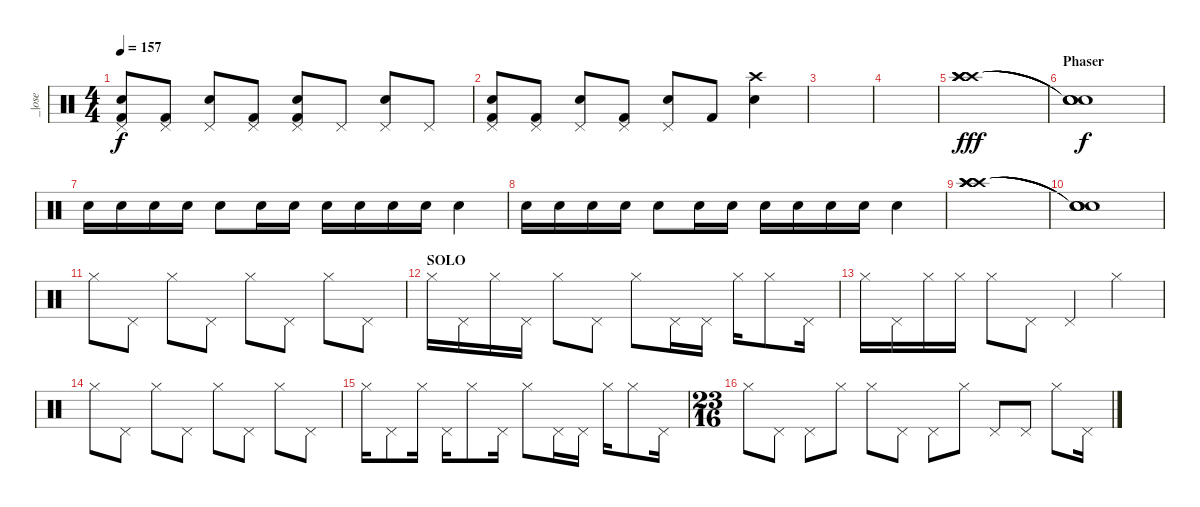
\track ("_|ose" "_|ose") {instrument percussion}
\staff {score}
\articulation defaults
\ts (4 4)
\tempo 157
\clef neutral
\ks c
("Pedal Hi-Hat (hit)" "Electric Snare (hit)" "Kick (hit) 2").8{dy f} ("Pedal Hi-Hat (hit)" "Kick (hit) 2").8 ("Pedal Hi-Hat (hit)" "Electric Snare (hit)").8 ("Pedal Hi-Hat (hit)" "Kick (hit) 2").8 ("Pedal Hi-Hat (hit)" "Electric Snare (hit)" "Kick (hit) 2").8 "Pedal Hi-Hat (hit)".8 ("Pedal Hi-Hat (hit)" "Electric Snare (hit)").8 "Pedal Hi-Hat (hit)".8 |
("Pedal Hi-Hat (hit)" "Electric Snare (hit)" "Kick (hit) 2").8 ("Pedal Hi-Hat (hit)" "Kick (hit) 2").8 ("Pedal Hi-Hat (hit)" "Electric Snare (hit)").8 ("Pedal Hi-Hat (hit)" "Kick (hit) 2").8 ("Pedal Hi-Hat (hit)" "Electric Snare (hit)").8 "Kick (hit) 2".8 ("Crash high (hit)" "Electric Snare (hit)").4 |
|
|
("Crash high (hit)" "Crash high (hit)" "Crash high (hit)" "Crash high (hit)").1{dy fff} |
\section ("" "Phaser")
("Snare (hit)"{t} "Snare (hit)"{t} "Snare (hit)"{t} "Snare (hit)"{t}).1{dy f} |
"Electric Snare (hit)".16 "Electric Snare (hit)".16 "Electric Snare (hit)".16 "Electric Snare (hit)".16 "Electric Snare (hit)".8 "Electric Snare (hit)".16 "Electric Snare (hit)".16 "Electric Snare (hit)".16 "Electric Snare (hit)".16 "Electric Snare (hit)".16 "Electric Snare (hit)".16 "Electric Snare (hit)".4 |
"Electric Snare (hit)".16 "Electric Snare (hit)".16 "Electric Snare (hit)".16 "Electric Snare (hit)".16 "Electric Snare (hit)".8 "Electric Snare (hit)".16 "Electric Snare (hit)".16 "Electric Snare (hit)".16 "Electric Snare (hit)".16 "Electric Snare (hit)".16 "Electric Snare (hit)".16 "Electric Snare (hit)".4 |
("Crash high (hit)" "Crash high (hit)" "Crash high (hit)" "Crash high (hit)").1 |
("Snare (hit)"{t} "Snare (hit)"{t} "Snare (hit)"{t} "Snare (hit)"{t}).1 |
\section ("" "")
"Hi-Hat (closed)".8 "Pedal Hi-Hat (hit)".8 "Hi-Hat (closed)".8 "Pedal Hi-Hat (hit)".8 "Hi-Hat (closed)".8 "Pedal Hi-Hat (hit)".8 "Hi-Hat (closed)".8 "Pedal Hi-Hat (hit)".8 |
\section ("" "SOLO")
"Hi-Hat (closed)".16 "Pedal Hi-Hat (hit)".16 "Hi-Hat (closed)".16 "Pedal Hi-Hat (hit)".16 "Hi-Hat (closed)".8 "Pedal Hi-Hat (hit)".8 "Hi-Hat (closed)".8 "Pedal Hi-Hat (hit)".16 "Pedal Hi-Hat (hit)".16 "Hi-Hat (closed)".16 "Hi-Hat (closed)".8 "Pedal Hi-Hat (hit)".16 |
"Hi-Hat (closed)".16 "Pedal Hi-Hat (hit)".16 "Hi-Hat (closed)".16 "Hi-Hat (closed)".16 "Hi-Hat (closed)".8 "Pedal Hi-Hat (hit)".8 "Pedal Hi-Hat (hit)".4 "Hi-Hat (closed)".4 |
"Hi-Hat (closed)".8 "Pedal Hi-Hat (hit)".8 "Hi-Hat (closed)".8 "Pedal Hi-Hat (hit)".8 "Hi-Hat (closed)".8 "Pedal Hi-Hat (hit)".8 "Hi-Hat (closed)".8 "Pedal Hi-Hat (hit)".8 |
"Hi-Hat (closed)".16 "Pedal Hi-Hat (hit)".8 "Hi-Hat (closed)".16 "Pedal Hi-Hat (hit)".16 "Hi-Hat (closed)".8 "Pedal Hi-Hat (hit)".16 "Hi-Hat (closed)".8 "Pedal Hi-Hat (hit)".16 "Pedal Hi-Hat (hit)".16 "Hi-Hat (closed)".16 "Hi-Hat (closed)".8 "Pedal Hi-Hat (hit)".16 |
\ts (23 16)
"Hi-Hat (closed)".8 "Pedal Hi-Hat (hit)".8 "Pedal Hi-Hat (hit)".8 "Hi-Hat (closed)".8 "Hi-Hat (closed)".8 "Pedal Hi-Hat (hit)".8 "Pedal Hi-Hat (hit)".8 "Hi-Hat (closed)".8 "Pedal Hi-Hat (hit)".8 "Pedal Hi-Hat (hit)".8 "Hi-Hat (closed)".8 "Pedal Hi-Hat (hit)".16
